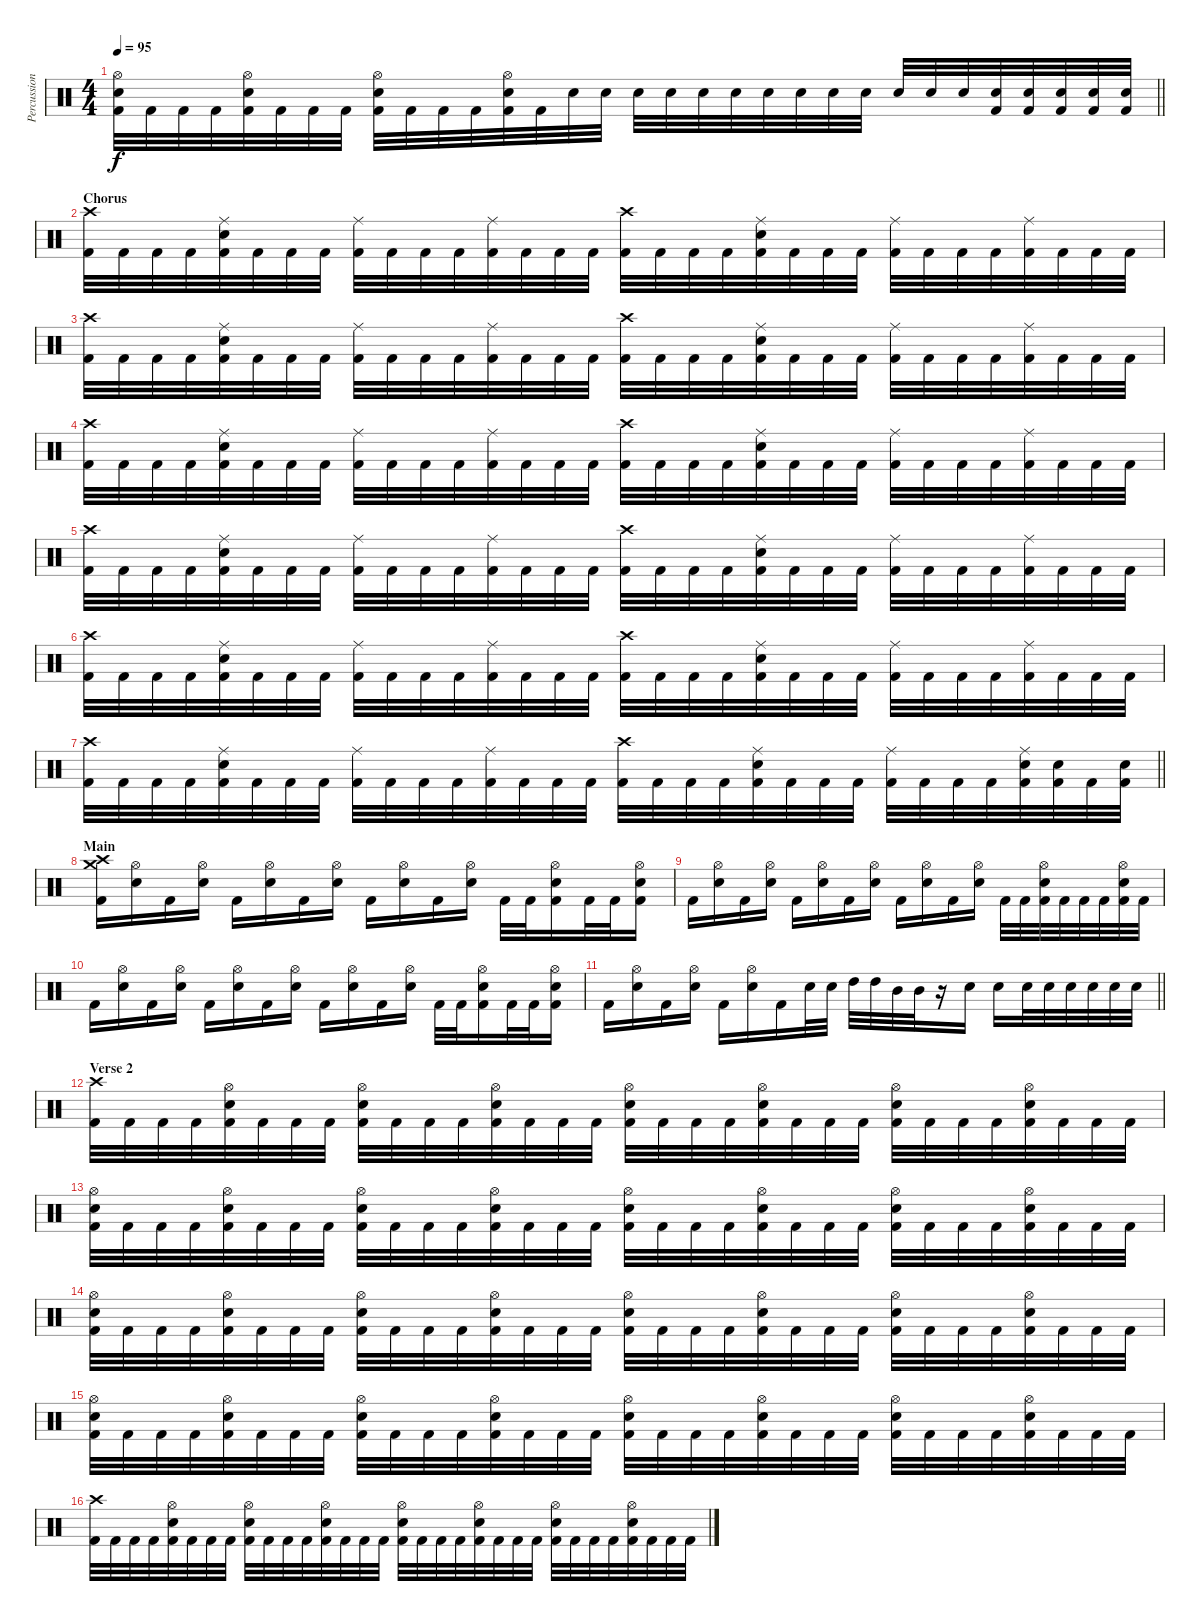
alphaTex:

\track ("Percussion" "Percussion") {instrument percussion}
\staff {score}
\articulation defaults
\ts (4 4)
\tempo 95
\clef neutral
\barLineRight lightlight
\ks c
("Hi-Hat (open)" "Electric Snare (hit)" "Kick (hit) 2").32{dy f} "Kick (hit) 2".32 "Kick (hit) 2".32 "Kick (hit) 2".32 ("Hi-Hat (open)" "Electric Snare (hit)" "Kick (hit) 2").32 "Kick (hit) 2".32 "Kick (hit) 2".32 "Kick (hit) 2".32 ("Hi-Hat (open)" "Electric Snare (hit)" "Kick (hit) 2").32 "Kick (hit) 2".32 "Kick (hit) 2".32 "Kick (hit) 2".32 ("Hi-Hat (open)" "Electric Snare (hit)" "Kick (hit) 2").32 "Kick (hit) 2".32 "Electric Snare (hit)".32 "Electric Snare (hit)".32 "Electric Snare (hit)".32 "Electric Snare (hit)".32 "Electric Snare (hit)".32 "Electric Snare (hit)".32 "Electric Snare (hit)".32 "Electric Snare (hit)".32 "Electric Snare (hit)".32 "Electric Snare (hit)".32 "Electric Snare (hit)".32 "Electric Snare (hit)".32 "Electric Snare (hit)".32 ("Electric Snare (hit)" "Kick (hit) 2").32 ("Electric Snare (hit)" "Kick (hit) 2").32 ("Electric Snare (hit)" "Kick (hit) 2").32 ("Electric Snare (hit)" "Kick (hit) 2").32 ("Electric Snare (hit)" "Kick (hit) 2").32 |
\section ("" "Chorus")
("Crash high (hit)" "Kick (hit) 2").32 "Kick (hit) 2".32 "Kick (hit) 2".32 "Kick (hit) 2".32 ("Ride (middle)" "Electric Snare (hit)" "Kick (hit) 2").32 "Kick (hit) 2".32 "Kick (hit) 2".32 "Kick (hit) 2".32 ("Ride (middle)" "Kick (hit) 2").32 "Kick (hit) 2".32 "Kick (hit) 2".32 "Kick (hit) 2".32 ("Ride (middle)" "Kick (hit) 2").32 "Kick (hit) 2".32 "Kick (hit) 2".32 "Kick (hit) 2".32 ("Crash high (hit)" "Kick (hit) 2").32 "Kick (hit) 2".32 "Kick (hit) 2".32 "Kick (hit) 2".32 ("Ride (middle)" "Electric Snare (hit)" "Kick (hit) 2").32 "Kick (hit) 2".32 "Kick (hit) 2".32 "Kick (hit) 2".32 ("Ride (middle)" "Kick (hit) 2").32 "Kick (hit) 2".32 "Kick (hit) 2".32 "Kick (hit) 2".32 ("Ride (middle)" "Kick (hit) 2").32 "Kick (hit) 2".32 "Kick (hit) 2".32 "Kick (hit) 2".32 |
("Crash high (hit)" "Kick (hit) 2").32 "Kick (hit) 2".32 "Kick (hit) 2".32 "Kick (hit) 2".32 ("Ride (middle)" "Electric Snare (hit)" "Kick (hit) 2").32 "Kick (hit) 2".32 "Kick (hit) 2".32 "Kick (hit) 2".32 ("Ride (middle)" "Kick (hit) 2").32 "Kick (hit) 2".32 "Kick (hit) 2".32 "Kick (hit) 2".32 ("Ride (middle)" "Kick (hit) 2").32 "Kick (hit) 2".32 "Kick (hit) 2".32 "Kick (hit) 2".32 ("Crash high (hit)" "Kick (hit) 2").32 "Kick (hit) 2".32 "Kick (hit) 2".32 "Kick (hit) 2".32 ("Ride (middle)" "Electric Snare (hit)" "Kick (hit) 2").32 "Kick (hit) 2".32 "Kick (hit) 2".32 "Kick (hit) 2".32 ("Ride (middle)" "Kick (hit) 2").32 "Kick (hit) 2".32 "Kick (hit) 2".32 "Kick (hit) 2".32 ("Ride (middle)" "Kick (hit) 2").32 "Kick (hit) 2".32 "Kick (hit) 2".32 "Kick (hit) 2".32 |
("Crash high (hit)" "Kick (hit) 2").32 "Kick (hit) 2".32 "Kick (hit) 2".32 "Kick (hit) 2".32 ("Ride (middle)" "Electric Snare (hit)" "Kick (hit) 2").32 "Kick (hit) 2".32 "Kick (hit) 2".32 "Kick (hit) 2".32 ("Ride (middle)" "Kick (hit) 2").32 "Kick (hit) 2".32 "Kick (hit) 2".32 "Kick (hit) 2".32 ("Ride (middle)" "Kick (hit) 2").32 "Kick (hit) 2".32 "Kick (hit) 2".32 "Kick (hit) 2".32 ("Crash high (hit)" "Kick (hit) 2").32 "Kick (hit) 2".32 "Kick (hit) 2".32 "Kick (hit) 2".32 ("Ride (middle)" "Electric Snare (hit)" "Kick (hit) 2").32 "Kick (hit) 2".32 "Kick (hit) 2".32 "Kick (hit) 2".32 ("Ride (middle)" "Kick (hit) 2").32 "Kick (hit) 2".32 "Kick (hit) 2".32 "Kick (hit) 2".32 ("Ride (middle)" "Kick (hit) 2").32 "Kick (hit) 2".32 "Kick (hit) 2".32 "Kick (hit) 2".32 |
("Crash high (hit)" "Kick (hit) 2").32 "Kick (hit) 2".32 "Kick (hit) 2".32 "Kick (hit) 2".32 ("Ride (middle)" "Electric Snare (hit)" "Kick (hit) 2").32 "Kick (hit) 2".32 "Kick (hit) 2".32 "Kick (hit) 2".32 ("Ride (middle)" "Kick (hit) 2").32 "Kick (hit) 2".32 "Kick (hit) 2".32 "Kick (hit) 2".32 ("Ride (middle)" "Kick (hit) 2").32 "Kick (hit) 2".32 "Kick (hit) 2".32 "Kick (hit) 2".32 ("Crash high (hit)" "Kick (hit) 2").32 "Kick (hit) 2".32 "Kick (hit) 2".32 "Kick (hit) 2".32 ("Ride (middle)" "Electric Snare (hit)" "Kick (hit) 2").32 "Kick (hit) 2".32 "Kick (hit) 2".32 "Kick (hit) 2".32 ("Ride (middle)" "Kick (hit) 2").32 "Kick (hit) 2".32 "Kick (hit) 2".32 "Kick (hit) 2".32 ("Ride (middle)" "Kick (hit) 2").32 "Kick (hit) 2".32 "Kick (hit) 2".32 "Kick (hit) 2".32 |
("Crash high (hit)" "Kick (hit) 2").32 "Kick (hit) 2".32 "Kick (hit) 2".32 "Kick (hit) 2".32 ("Ride (middle)" "Electric Snare (hit)" "Kick (hit) 2").32 "Kick (hit) 2".32 "Kick (hit) 2".32 "Kick (hit) 2".32 ("Ride (middle)" "Kick (hit) 2").32 "Kick (hit) 2".32 "Kick (hit) 2".32 "Kick (hit) 2".32 ("Ride (middle)" "Kick (hit) 2").32 "Kick (hit) 2".32 "Kick (hit) 2".32 "Kick (hit) 2".32 ("Crash high (hit)" "Kick (hit) 2").32 "Kick (hit) 2".32 "Kick (hit) 2".32 "Kick (hit) 2".32 ("Ride (middle)" "Electric Snare (hit)" "Kick (hit) 2").32 "Kick (hit) 2".32 "Kick (hit) 2".32 "Kick (hit) 2".32 ("Ride (middle)" "Kick (hit) 2").32 "Kick (hit) 2".32 "Kick (hit) 2".32 "Kick (hit) 2".32 ("Ride (middle)" "Kick (hit) 2").32 "Kick (hit) 2".32 "Kick (hit) 2".32 "Kick (hit) 2".32 |
\barLineRight lightlight
("Crash high (hit)" "Kick (hit) 2").32 "Kick (hit) 2".32 "Kick (hit) 2".32 "Kick (hit) 2".32 ("Ride (middle)" "Electric Snare (hit)" "Kick (hit) 2").32 "Kick (hit) 2".32 "Kick (hit) 2".32 "Kick (hit) 2".32 ("Ride (middle)" "Kick (hit) 2").32 "Kick (hit) 2".32 "Kick (hit) 2".32 "Kick (hit) 2".32 ("Ride (middle)" "Kick (hit) 2").32 "Kick (hit) 2".32 "Kick (hit) 2".32 "Kick (hit) 2".32 ("Crash high (hit)" "Kick (hit) 2").32 "Kick (hit) 2".32 "Kick (hit) 2".32 "Kick (hit) 2".32 ("Ride (middle)" "Electric Snare (hit)" "Kick (hit) 2").32 "Kick (hit) 2".32 "Kick (hit) 2".32 "Kick (hit) 2".32 ("Ride (middle)" "Kick (hit) 2").32 "Kick (hit) 2".32 "Kick (hit) 2".32 "Kick (hit) 2".32 ("Ride (middle)" "Electric Snare (hit)" "Kick (hit) 2").32 ("Electric Snare (hit)" "Kick (hit) 2").32 "Kick (hit) 2".32 ("Electric Snare (hit)" "Kick (hit) 2").32 |
\section ("" "Main")
("Crash medium (hit)" "Crash high (hit)" "Kick (hit) 2").16 ("Hi-Hat (open)" "Electric Snare (hit)").16 "Kick (hit) 2".16 ("Hi-Hat (open)" "Electric Snare (hit)").16 "Kick (hit) 2".16 ("Hi-Hat (open)" "Electric Snare (hit)").16 "Kick (hit) 2".16 ("Hi-Hat (open)" "Electric Snare (hit)").16 "Kick (hit) 2".16 ("Hi-Hat (open)" "Electric Snare (hit)").16 "Kick (hit) 2".16 ("Hi-Hat (open)" "Electric Snare (hit)").16 "Kick (hit) 2".32 "Kick (hit) 2".32 ("Hi-Hat (open)" "Electric Snare (hit)" "Kick (hit) 2").16 "Kick (hit) 2".32 "Kick (hit) 2".32 ("Hi-Hat (open)" "Electric Snare (hit)" "Kick (hit) 2").16 |
"Kick (hit) 2".16 ("Hi-Hat (open)" "Electric Snare (hit)").16 "Kick (hit) 2".16 ("Hi-Hat (open)" "Electric Snare (hit)").16 "Kick (hit) 2".16 ("Hi-Hat (open)" "Electric Snare (hit)").16 "Kick (hit) 2".16 ("Hi-Hat (open)" "Electric Snare (hit)").16 "Kick (hit) 2".16 ("Hi-Hat (open)" "Electric Snare (hit)").16 "Kick (hit) 2".16 ("Hi-Hat (open)" "Electric Snare (hit)").16 "Kick (hit) 2".32 "Kick (hit) 2".32 ("Hi-Hat (open)" "Electric Snare (hit)" "Kick (hit) 2").32 "Kick (hit) 2".32 "Kick (hit) 2".32 "Kick (hit) 2".32 ("Hi-Hat (open)" "Electric Snare (hit)" "Kick (hit) 2").32 "Kick (hit) 2".32 |
"Kick (hit) 2".16 ("Hi-Hat (open)" "Electric Snare (hit)").16 "Kick (hit) 2".16 ("Hi-Hat (open)" "Electric Snare (hit)").16 "Kick (hit) 2".16 ("Hi-Hat (open)" "Electric Snare (hit)").16 "Kick (hit) 2".16 ("Hi-Hat (open)" "Electric Snare (hit)").16 "Kick (hit) 2".16 ("Hi-Hat (open)" "Electric Snare (hit)").16 "Kick (hit) 2".16 ("Hi-Hat (open)" "Electric Snare (hit)").16 "Kick (hit) 2".32 "Kick (hit) 2".32 ("Hi-Hat (open)" "Electric Snare (hit)" "Kick (hit) 2").16 "Kick (hit) 2".32 "Kick (hit) 2".32 ("Hi-Hat (open)" "Electric Snare (hit)" "Kick (hit) 2").16 |
\barLineRight lightlight "Kick (hit) 2".16
("Hi-Hat (open)" "Electric Snare (hit)").16 "Kick (hit) 2".16 ("Hi-Hat (open)" "Electric Snare (hit)").16 "Kick (hit) 2".16 ("Hi-Hat (open)" "Electric Snare (hit)").16 "Kick (hit) 2".16 "Electric Snare (hit)".32 "Electric Snare (hit)".32 "High Tom (hit)".32 "High Tom (hit)".32 "Mid Tom (hit)".32 "Mid Tom (hit)".32 r.16 "Electric Snare (hit)".16 "Electric Snare (hit)".16 "Electric Snare (hit)".32 "Electric Snare (hit)".32 "Electric Snare (hit)".32 "Electric Snare (hit)".32 "Electric Snare (hit)".32 "Electric Snare (hit)".32 |
\section ("" "Verse 2")
("Crash high (hit)" "Kick (hit) 2").32 "Kick (hit) 2".32 "Kick (hit) 2".32 "Kick (hit) 2".32 ("Hi-Hat (open)" "Electric Snare (hit)" "Kick (hit) 2").32 "Kick (hit) 2".32 "Kick (hit) 2".32 "Kick (hit) 2".32 ("Hi-Hat (open)" "Electric Snare (hit)" "Kick (hit) 2").32 "Kick (hit) 2".32 "Kick (hit) 2".32 "Kick (hit) 2".32 ("Hi-Hat (open)" "Electric Snare (hit)" "Kick (hit) 2").32 "Kick (hit) 2".32 "Kick (hit) 2".32 "Kick (hit) 2".32 ("Hi-Hat (open)" "Electric Snare (hit)" "Kick (hit) 2").32 "Kick (hit) 2".32 "Kick (hit) 2".32 "Kick (hit) 2".32 ("Hi-Hat (open)" "Electric Snare (hit)" "Kick (hit) 2").32 "Kick (hit) 2".32 "Kick (hit) 2".32 "Kick (hit) 2".32 ("Hi-Hat (open)" "Electric Snare (hit)" "Kick (hit) 2").32 "Kick (hit) 2".32 "Kick (hit) 2".32 "Kick (hit) 2".32 ("Hi-Hat (open)" "Electric Snare (hit)" "Kick (hit) 2").32 "Kick (hit) 2".32 "Kick (hit) 2".32 "Kick (hit) 2".32 |
("Hi-Hat (open)" "Electric Snare (hit)" "Kick (hit) 2").32 "Kick (hit) 2".32 "Kick (hit) 2".32 "Kick (hit) 2".32 ("Hi-Hat (open)" "Electric Snare (hit)" "Kick (hit) 2").32 "Kick (hit) 2".32 "Kick (hit) 2".32 "Kick (hit) 2".32 ("Hi-Hat (open)" "Electric Snare (hit)" "Kick (hit) 2").32 "Kick (hit) 2".32 "Kick (hit) 2".32 "Kick (hit) 2".32 ("Hi-Hat (open)" "Electric Snare (hit)" "Kick (hit) 2").32 "Kick (hit) 2".32 "Kick (hit) 2".32 "Kick (hit) 2".32 ("Hi-Hat (open)" "Electric Snare (hit)" "Kick (hit) 2").32 "Kick (hit) 2".32 "Kick (hit) 2".32 "Kick (hit) 2".32 ("Hi-Hat (open)" "Electric Snare (hit)" "Kick (hit) 2").32 "Kick (hit) 2".32 "Kick (hit) 2".32 "Kick (hit) 2".32 ("Hi-Hat (open)" "Electric Snare (hit)" "Kick (hit) 2").32 "Kick (hit) 2".32 "Kick (hit) 2".32 "Kick (hit) 2".32 ("Hi-Hat (open)" "Electric Snare (hit)" "Kick (hit) 2").32 "Kick (hit) 2".32 "Kick (hit) 2".32 "Kick (hit) 2".32 |
("Hi-Hat (open)" "Electric Snare (hit)" "Kick (hit) 2").32 "Kick (hit) 2".32 "Kick (hit) 2".32 "Kick (hit) 2".32 ("Hi-Hat (open)" "Electric Snare (hit)" "Kick (hit) 2").32 "Kick (hit) 2".32 "Kick (hit) 2".32 "Kick (hit) 2".32 ("Hi-Hat (open)" "Electric Snare (hit)" "Kick (hit) 2").32 "Kick (hit) 2".32 "Kick (hit) 2".32 "Kick (hit) 2".32 ("Hi-Hat (open)" "Electric Snare (hit)" "Kick (hit) 2").32 "Kick (hit) 2".32 "Kick (hit) 2".32 "Kick (hit) 2".32 ("Hi-Hat (open)" "Electric Snare (hit)" "Kick (hit) 2").32 "Kick (hit) 2".32 "Kick (hit) 2".32 "Kick (hit) 2".32 ("Hi-Hat (open)" "Electric Snare (hit)" "Kick (hit) 2").32 "Kick (hit) 2".32 "Kick (hit) 2".32 "Kick (hit) 2".32 ("Hi-Hat (open)" "Electric Snare (hit)" "Kick (hit) 2").32 "Kick (hit) 2".32 "Kick (hit) 2".32 "Kick (hit) 2".32 ("Hi-Hat (open)" "Electric Snare (hit)" "Kick (hit) 2").32 "Kick (hit) 2".32 "Kick (hit) 2".32 "Kick (hit) 2".32 |
("Hi-Hat (open)" "Electric Snare (hit)" "Kick (hit) 2").32 "Kick (hit) 2".32 "Kick (hit) 2".32 "Kick (hit) 2".32 ("Hi-Hat (open)" "Electric Snare (hit)" "Kick (hit) 2").32 "Kick (hit) 2".32 "Kick (hit) 2".32 "Kick (hit) 2".32 ("Hi-Hat (open)" "Electric Snare (hit)" "Kick (hit) 2").32 "Kick (hit) 2".32 "Kick (hit) 2".32 "Kick (hit) 2".32 ("Hi-Hat (open)" "Electric Snare (hit)" "Kick (hit) 2").32 "Kick (hit) 2".32 "Kick (hit) 2".32 "Kick (hit) 2".32 ("Hi-Hat (open)" "Electric Snare (hit)" "Kick (hit) 2").32 "Kick (hit) 2".32 "Kick (hit) 2".32 "Kick (hit) 2".32 ("Hi-Hat (open)" "Electric Snare (hit)" "Kick (hit) 2").32 "Kick (hit) 2".32 "Kick (hit) 2".32 "Kick (hit) 2".32 ("Hi-Hat (open)" "Electric Snare (hit)" "Kick (hit) 2").32 "Kick (hit) 2".32 "Kick (hit) 2".32 "Kick (hit) 2".32 ("Hi-Hat (open)" "Electric Snare (hit)" "Kick (hit) 2").32 "Kick (hit) 2".32 "Kick (hit) 2".32 "Kick (hit) 2".32 |
("Crash high (hit)" "Kick (hit) 2").32 "Kick (hit) 2".32 "Kick (hit) 2".32 "Kick (hit) 2".32 ("Hi-Hat (open)" "Electric Snare (hit)" "Kick (hit) 2").32 "Kick (hit) 2".32 "Kick (hit) 2".32 "Kick (hit) 2".32 ("Hi-Hat (open)" "Electric Snare (hit)" "Kick (hit) 2").32 "Kick (hit) 2".32 "Kick (hit) 2".32 "Kick (hit) 2".32 ("Hi-Hat (open)" "Electric Snare (hit)" "Kick (hit) 2").32 "Kick (hit) 2".32 "Kick (hit) 2".32 "Kick (hit) 2".32 ("Hi-Hat (open)" "Electric Snare (hit)" "Kick (hit) 2").32 "Kick (hit) 2".32 "Kick (hit) 2".32 "Kick (hit) 2".32 ("Hi-Hat (open)" "Electric Snare (hit)" "Kick (hit) 2").32 "Kick (hit) 2".32 "Kick (hit) 2".32 "Kick (hit) 2".32 ("Hi-Hat (open)" "Electric Snare (hit)" "Kick (hit) 2").32 "Kick (hit) 2".32 "Kick (hit) 2".32 "Kick (hit) 2".32 ("Hi-Hat (open)" "Electric Snare (hit)" "Kick (hit) 2").32 "Kick (hit) 2".32 "Kick (hit) 2".32 "Kick (hit) 2".32
